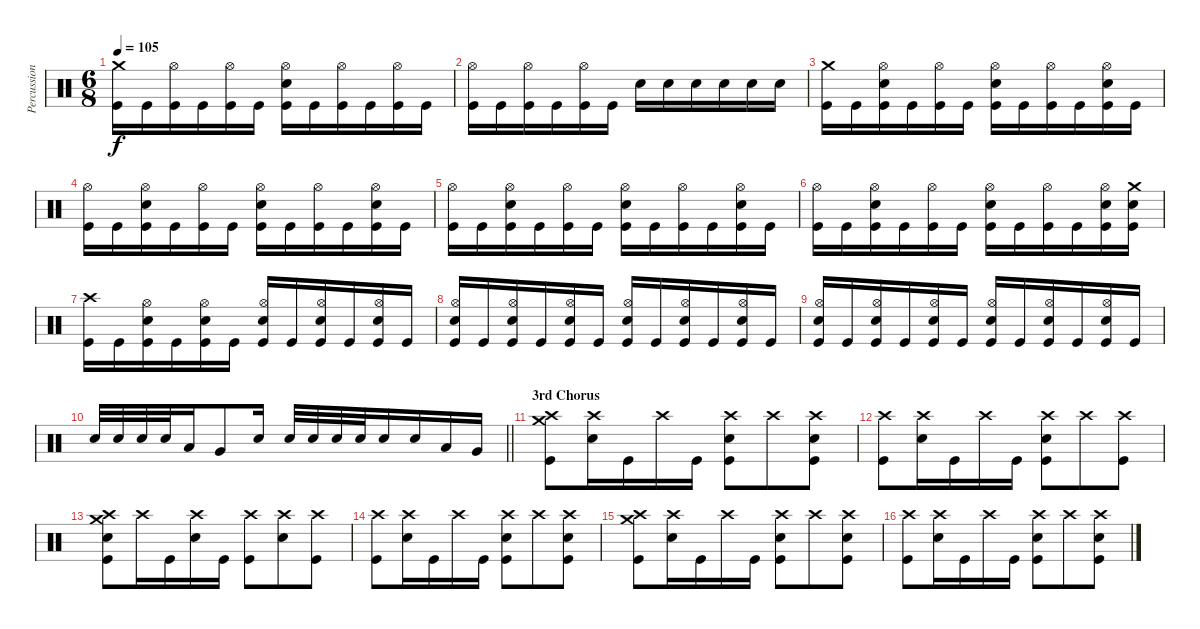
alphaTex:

\track ("Percussion" "Percussion") {instrument percussion}
\staff {score}
\articulation defaults
\ts (6 8)
\tempo 105
\clef neutral
\ks c
("Crash medium (hit)" "Kick (hit)").16{dy f} "Kick (hit)".16 ("Hi-Hat (open)" "Kick (hit)").16 "Kick (hit)".16 ("Hi-Hat (open)" "Kick (hit)").16 "Kick (hit)".16 ("Hi-Hat (open)" "Electric Snare (hit)" "Kick (hit)").16 "Kick (hit)".16 ("Hi-Hat (open)" "Kick (hit)").16 "Kick (hit)".16 ("Hi-Hat (open)" "Kick (hit)").16 "Kick (hit)".16 |
("Hi-Hat (open)" "Kick (hit)").16 "Kick (hit)".16 ("Hi-Hat (open)" "Kick (hit)").16 "Kick (hit)".16 ("Hi-Hat (open)" "Kick (hit)").16 "Kick (hit)".16 "Electric Snare (hit)".16 "Electric Snare (hit)".16 "Electric Snare (hit)".16 "Electric Snare (hit)".16 "Electric Snare (hit)".16 "Electric Snare (hit)".16 |
("Crash medium (hit)" "Kick (hit)").16 "Kick (hit)".16 ("Hi-Hat (open)" "Electric Snare (hit)" "Kick (hit)").16 "Kick (hit)".16 ("Hi-Hat (open)" "Kick (hit)").16 "Kick (hit)".16 ("Hi-Hat (open)" "Electric Snare (hit)" "Kick (hit)").16 "Kick (hit)".16 ("Hi-Hat (open)" "Kick (hit)").16 "Kick (hit)".16 ("Hi-Hat (open)" "Electric Snare (hit)" "Kick (hit)").16 "Kick (hit)".16 |
("Hi-Hat (open)" "Kick (hit)").16 "Kick (hit)".16 ("Hi-Hat (open)" "Electric Snare (hit)" "Kick (hit)").16 "Kick (hit)".16 ("Hi-Hat (open)" "Kick (hit)").16 "Kick (hit)".16 ("Hi-Hat (open)" "Electric Snare (hit)" "Kick (hit)").16 "Kick (hit)".16 ("Hi-Hat (open)" "Kick (hit)").16 "Kick (hit)".16 ("Hi-Hat (open)" "Electric Snare (hit)" "Kick (hit)").16 "Kick (hit)".16 |
("Hi-Hat (open)" "Kick (hit)").16 "Kick (hit)".16 ("Hi-Hat (open)" "Electric Snare (hit)" "Kick (hit)").16 "Kick (hit)".16 ("Hi-Hat (open)" "Kick (hit)").16 "Kick (hit)".16 ("Hi-Hat (open)" "Electric Snare (hit)" "Kick (hit)").16 "Kick (hit)".16 ("Hi-Hat (open)" "Kick (hit)").16 "Kick (hit)".16 ("Hi-Hat (open)" "Electric Snare (hit)" "Kick (hit)").16 "Kick (hit)".16 |
("Hi-Hat (open)" "Kick (hit)").16 "Kick (hit)".16 ("Hi-Hat (open)" "Electric Snare (hit)" "Kick (hit)").16 "Kick (hit)".16 ("Hi-Hat (open)" "Kick (hit)").16 "Kick (hit)".16 ("Hi-Hat (open)" "Electric Snare (hit)" "Kick (hit)").16 "Kick (hit)".16 ("Hi-Hat (open)" "Kick (hit)").16 "Kick (hit)".16 ("Hi-Hat (open)" "Electric Snare (hit)" "Kick (hit)").16 ("Crash medium (hit)" "Electric Snare (hit)" "Kick (hit)").16 |
("Crash high (hit)" "Kick (hit)").16 "Kick (hit)".16 ("Hi-Hat (open)" "Electric Snare (hit)" "Kick (hit)").16 "Kick (hit)".16 ("Hi-Hat (open)" "Electric Snare (hit)" "Kick (hit)").16 "Kick (hit)".16 ("Hi-Hat (open)" "Electric Snare (hit)" "Kick (hit)").16 "Kick (hit)".16 ("Hi-Hat (open)" "Electric Snare (hit)" "Kick (hit)").16 "Kick (hit)".16 ("Hi-Hat (open)" "Electric Snare (hit)" "Kick (hit)").16 "Kick (hit)".16 |
("Hi-Hat (open)" "Electric Snare (hit)" "Kick (hit)").16 "Kick (hit)".16 ("Hi-Hat (open)" "Electric Snare (hit)" "Kick (hit)").16 "Kick (hit)".16 ("Hi-Hat (open)" "Electric Snare (hit)" "Kick (hit)").16 "Kick (hit)".16 ("Hi-Hat (open)" "Electric Snare (hit)" "Kick (hit)").16 "Kick (hit)".16 ("Hi-Hat (open)" "Electric Snare (hit)" "Kick (hit)").16 "Kick (hit)".16 ("Hi-Hat (open)" "Electric Snare (hit)" "Kick (hit)").16 "Kick (hit)".16 |
("Hi-Hat (open)" "Electric Snare (hit)" "Kick (hit)").16 "Kick (hit)".16 ("Hi-Hat (open)" "Electric Snare (hit)" "Kick (hit)").16 "Kick (hit)".16 ("Hi-Hat (open)" "Electric Snare (hit)" "Kick (hit)").16 "Kick (hit)".16 ("Hi-Hat (open)" "Electric Snare (hit)" "Kick (hit)").16 "Kick (hit)".16 ("Hi-Hat (open)" "Electric Snare (hit)" "Kick (hit)").16 "Kick (hit)".16 ("Hi-Hat (open)" "Electric Snare (hit)" "Kick (hit)").16 "Kick (hit)".16 |
\barLineRight lightlight "Electric Snare (hit)".32 "Electric Snare (hit)".32 "Electric Snare (hit)".32 "Electric Snare (hit)".32 "Low Tom (hit)".16 "Very Low Tom (hit)".8 "Electric Snare (hit)".16 "Electric Snare (hit)".32 "Electric Snare (hit)".32 "Electric Snare (hit)".32 "Electric Snare (hit)".32 "Electric Snare (hit)".16 "Electric Snare (hit)".16 "Low Tom (hit)".16 "Very Low Tom (hit)".16
|
\section ("" "3rd Chorus")
("Crash medium (hit)" "Crash high (hit)" "Kick (hit)").8 ("Crash high (hit)" "Electric Snare (hit)").16 "Kick (hit)".16 "Crash high (hit)".16 "Kick (hit)".16 ("Crash high (hit)" "Electric Snare (hit)" "Kick (hit)").8 "Crash high (hit)".8 ("Crash high (hit)" "Electric Snare (hit)" "Kick (hit)").8 |
("Crash high (hit)" "Kick (hit)").8 ("Crash high (hit)" "Electric Snare (hit)").16 "Kick (hit)".16 "Crash high (hit)".16 "Kick (hit)".16 ("Crash high (hit)" "Electric Snare (hit)" "Kick (hit)").8 "Crash high (hit)".8 ("Crash high (hit)" "Kick (hit)").8 |
("Crash medium (hit)" "Crash high (hit)" "Electric Snare (hit)" "Kick (hit)").8 "Crash high (hit)".16 "Kick (hit)".16 ("Crash high (hit)" "Electric Snare (hit)").16 "Kick (hit)".16 ("Crash high (hit)" "Kick (hit)").8 ("Crash high (hit)" "Electric Snare (hit)").8 ("Crash high (hit)" "Kick (hit)").8 |
("Crash high (hit)" "Kick (hit)").8 ("Crash high (hit)" "Electric Snare (hit)").16 "Kick (hit)".16 "Crash high (hit)".16 "Kick (hit)".16 ("Crash high (hit)" "Electric Snare (hit)" "Kick (hit)").8 "Crash high (hit)".8 ("Crash high (hit)" "Electric Snare (hit)" "Kick (hit)").8 |
("Crash medium (hit)" "Crash high (hit)" "Kick (hit)").8 ("Crash high (hit)" "Electric Snare (hit)").16 "Kick (hit)".16 "Crash high (hit)".16 "Kick (hit)".16 ("Crash high (hit)" "Electric Snare (hit)" "Kick (hit)").8 "Crash high (hit)".8 ("Crash high (hit)" "Electric Snare (hit)" "Kick (hit)").8 |
("Crash high (hit)" "Kick (hit)").8 ("Crash high (hit)" "Electric Snare (hit)").16 "Kick (hit)".16 "Crash high (hit)".16 "Kick (hit)".16 ("Crash high (hit)" "Electric Snare (hit)" "Kick (hit)").8 "Crash high (hit)".8 ("Crash high (hit)" "Electric Snare (hit)" "Kick (hit)").8
